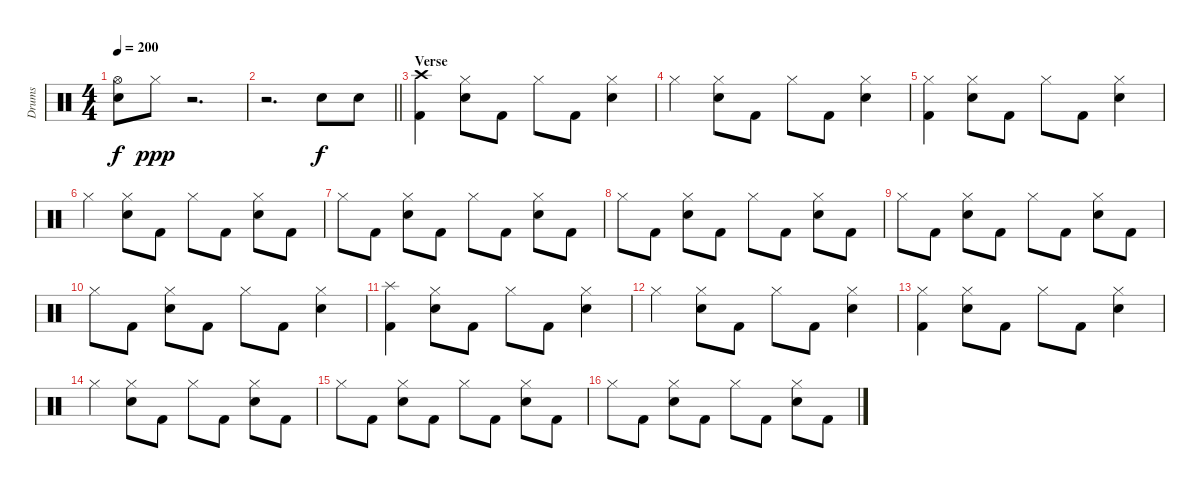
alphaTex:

\track ("Drums" "Drums") {instrument percussion}
\staff {score}
\articulation defaults
\ts (4 4)
\tempo 200
\clef neutral
\ks c
("Hi-Hat (open)" "Electric Snare (hit)").8{dy f} "Hi-Hat (closed)".8{dy ppp} r.2{d} |
\barLineRight lightlight
r.2{d} "Electric Snare (hit)".8{dy f} "Electric Snare (hit)".8 |
\section ("" "Verse")
("Kick (hit) 2" "Crash high (hit)").4 ("Hi-Hat (closed)" "Electric Snare (hit)").8 "Kick (hit) 2".8 "Hi-Hat (closed)".8 "Kick (hit) 2".8 ("Hi-Hat (closed)" "Electric Snare (hit)").4 |
"Hi-Hat (closed)".4 ("Hi-Hat (closed)" "Electric Snare (hit)").8 "Kick (hit) 2".8 "Hi-Hat (closed)".8 "Kick (hit) 2".8 ("Hi-Hat (closed)" "Electric Snare (hit)").4 |
("Kick (hit) 2" "Hi-Hat (closed)").4 ("Hi-Hat (closed)" "Electric Snare (hit)").8 "Kick (hit) 2".8 "Hi-Hat (closed)".8 "Kick (hit) 2".8 ("Hi-Hat (closed)" "Electric Snare (hit)").4 |
"Hi-Hat (closed)".4 ("Hi-Hat (closed)" "Electric Snare (hit)").8 "Kick (hit) 2".8 "Hi-Hat (closed)".8 "Kick (hit) 2".8 ("Hi-Hat (closed)" "Electric Snare (hit)").8 "Kick (hit) 2".8 |
"Hi-Hat (closed)".8 "Kick (hit) 2".8 ("Hi-Hat (closed)" "Electric Snare (hit)").8 "Kick (hit) 2".8 "Hi-Hat (closed)".8 "Kick (hit) 2".8 ("Hi-Hat (closed)" "Electric Snare (hit)").8 "Kick (hit) 2".8 |
"Hi-Hat (closed)".8 "Kick (hit) 2".8 ("Hi-Hat (closed)" "Electric Snare (hit)").8 "Kick (hit) 2".8 "Hi-Hat (closed)".8 "Kick (hit) 2".8 ("Hi-Hat (closed)" "Electric Snare (hit)").8 "Kick (hit) 2".8 |
"Hi-Hat (closed)".8 "Kick (hit) 2".8 ("Hi-Hat (closed)" "Electric Snare (hit)").8 "Kick (hit) 2".8 "Hi-Hat (closed)".8 "Kick (hit) 2".8 ("Hi-Hat (closed)" "Electric Snare (hit)").8 "Kick (hit) 2".8 |
"Hi-Hat (closed)".8 "Kick (hit) 2".8 ("Hi-Hat (closed)" "Electric Snare (hit)").8 "Kick (hit) 2".8 "Hi-Hat (closed)".8 "Kick (hit) 2".8 ("Hi-Hat (closed)" "Electric Snare (hit)").4 |
("Kick (hit) 2" "Splash (hit)").4 ("Hi-Hat (closed)" "Electric Snare (hit)").8 "Kick (hit) 2".8 "Hi-Hat (closed)".8 "Kick (hit) 2".8 ("Hi-Hat (closed)" "Electric Snare (hit)").4 |
"Hi-Hat (closed)".4 ("Hi-Hat (closed)" "Electric Snare (hit)").8 "Kick (hit) 2".8 "Hi-Hat (closed)".8 "Kick (hit) 2".8 ("Hi-Hat (closed)" "Electric Snare (hit)").4 |
("Kick (hit) 2" "Hi-Hat (closed)").4 ("Hi-Hat (closed)" "Electric Snare (hit)").8 "Kick (hit) 2".8 "Hi-Hat (closed)".8 "Kick (hit) 2".8 ("Hi-Hat (closed)" "Electric Snare (hit)").4 |
"Hi-Hat (closed)".4 ("Hi-Hat (closed)" "Electric Snare (hit)").8 "Kick (hit) 2".8 "Hi-Hat (closed)".8 "Kick (hit) 2".8 ("Hi-Hat (closed)" "Electric Snare (hit)").8 "Kick (hit) 2".8 |
"Hi-Hat (closed)".8 "Kick (hit) 2".8 ("Hi-Hat (closed)" "Electric Snare (hit)").8 "Kick (hit) 2".8 "Hi-Hat (closed)".8 "Kick (hit) 2".8 ("Hi-Hat (closed)" "Electric Snare (hit)").8 "Kick (hit) 2".8 |
"Hi-Hat (closed)".8 "Kick (hit) 2".8 ("Hi-Hat (closed)" "Electric Snare (hit)").8 "Kick (hit) 2".8 "Hi-Hat (closed)".8 "Kick (hit) 2".8 ("Hi-Hat (closed)" "Electric Snare (hit)").8 "Kick (hit) 2".8
